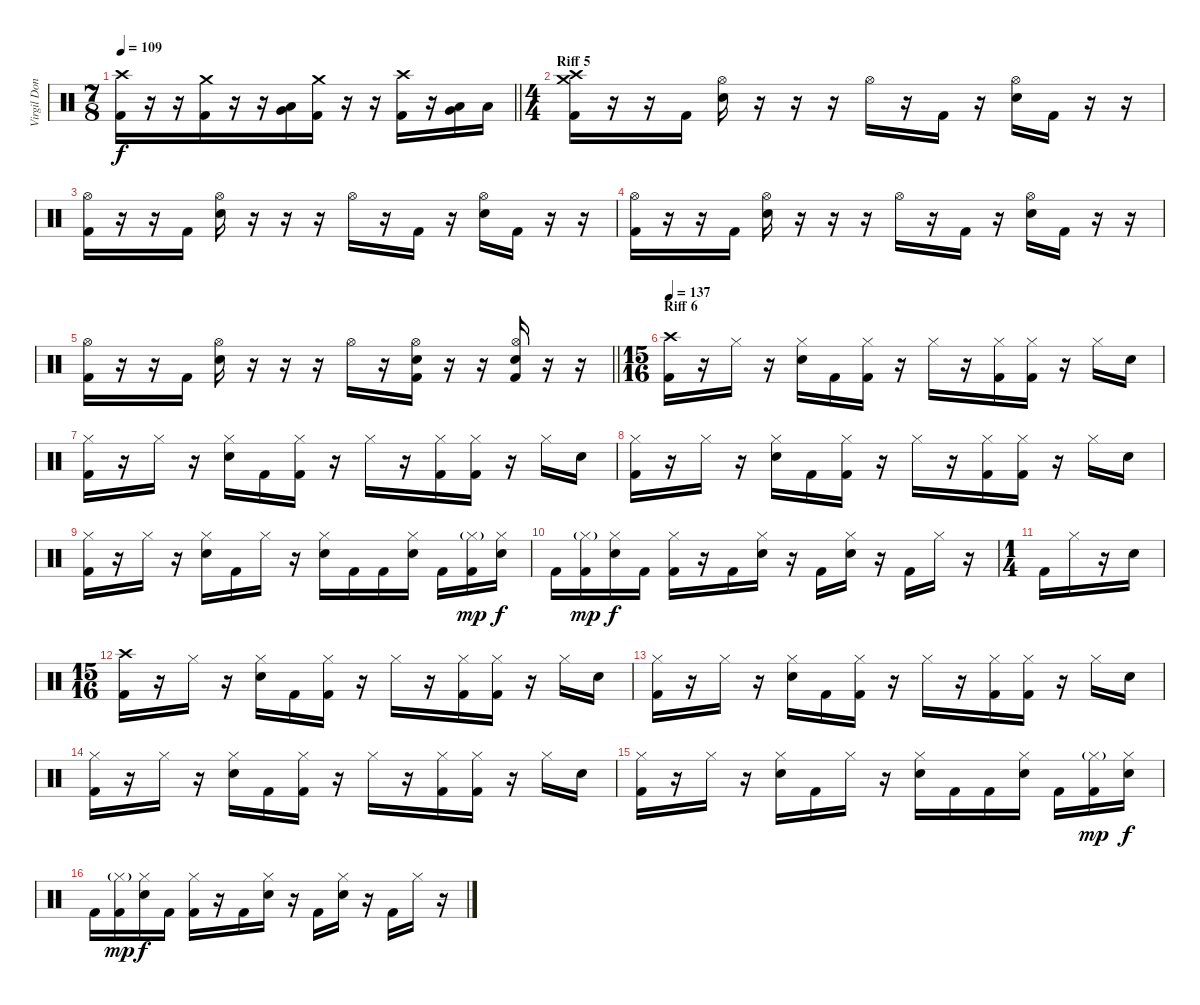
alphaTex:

\track ("Virgil Donati" "Virgil Don") {instrument percussion}
\staff {score}
\articulation defaults
\ts (7 8)
\tempo 109
\clef neutral
\barLineRight lightlight
\ks c
("Crash high (hit)" "Kick (hit) 2").16{dy f} r.16 r.16 ("Crash medium (hit)" "Kick (hit) 2").16 r.16 r.16 ("Very Low Tom (hit)" "Low Floor Tom (hit)").16 ("Crash medium (hit)" "Kick (hit) 2").16 r.16 r.16 ("Crash high (hit)" "Kick (hit) 2").16 r.16 ("Very Low Tom (hit)" "Low Floor Tom (hit)").16 "Low Floor Tom (hit)".16 |
\ts (4 4)
\section ("" "Riff 5")
("Crash medium (hit)" "Crash high (hit)" "Kick (hit) 2").16 r.16 r.16 "Kick (hit) 2".16 ("Hi-Hat (open)" "Electric Snare (hit)").16 r.16 r.16 r.16 "Hi-Hat (open)".16 r.16 "Kick (hit) 2".16 r.16 ("Hi-Hat (open)" "Electric Snare (hit)").16 "Kick (hit) 2".16 r.16 r.16 |
("Hi-Hat (open)" "Kick (hit) 2").16 r.16 r.16 "Kick (hit) 2".16 ("Hi-Hat (open)" "Electric Snare (hit)").16 r.16 r.16 r.16 "Hi-Hat (open)".16 r.16 "Kick (hit) 2".16 r.16 ("Hi-Hat (open)" "Electric Snare (hit)").16 "Kick (hit) 2".16 r.16 r.16 |
("Hi-Hat (open)" "Kick (hit) 2").16 r.16 r.16 "Kick (hit) 2".16 ("Hi-Hat (open)" "Electric Snare (hit)").16 r.16 r.16 r.16 "Hi-Hat (open)".16 r.16 "Kick (hit) 2".16 r.16 ("Hi-Hat (open)" "Electric Snare (hit)").16 "Kick (hit) 2".16 r.16 r.16 |
\barLineRight lightlight
("Hi-Hat (open)" "Kick (hit) 2").16 r.16 r.16 "Kick (hit) 2".16 ("Hi-Hat (open)" "Electric Snare (hit)").16 r.16 r.16 r.16 "Hi-Hat (open)".16 r.16 ("Hi-Hat (open)" "Electric Snare (hit)" "Kick (hit) 2").16 r.16 r.16 ("Hi-Hat (open)" "Electric Snare (hit)" "Kick (hit) 2").16 r.16 r.16 |
\ts (15 16)
\section ("" "Riff 6")
\tempo 137
("Crash high (hit)" "Kick (hit) 2").16 r.16 "Hi-Hat (closed)".16 r.16 ("Hi-Hat (closed)" "Electric Snare (hit)").16 "Kick (hit) 2".16 ("Hi-Hat (closed)" "Kick (hit) 2").16 r.16 "Hi-Hat (closed)".16 r.16 ("Hi-Hat (closed)" "Kick (hit) 2").16 ("Hi-Hat (closed)" "Kick (hit) 2").16 r.16 "Hi-Hat (closed)".16 "Electric Snare (hit)".16 |
("Hi-Hat (closed)" "Kick (hit) 2").16 r.16 "Hi-Hat (closed)".16 r.16 ("Hi-Hat (closed)" "Electric Snare (hit)").16 "Kick (hit) 2".16 ("Hi-Hat (closed)" "Kick (hit) 2").16 r.16 "Hi-Hat (closed)".16 r.16 ("Hi-Hat (closed)" "Kick (hit) 2").16 ("Hi-Hat (closed)" "Kick (hit) 2").16 r.16 "Hi-Hat (closed)".16 "Electric Snare (hit)".16 |
("Hi-Hat (closed)" "Kick (hit) 2").16 r.16 "Hi-Hat (closed)".16 r.16 ("Hi-Hat (closed)" "Electric Snare (hit)").16 "Kick (hit) 2".16 ("Hi-Hat (closed)" "Kick (hit) 2").16 r.16 "Hi-Hat (closed)".16 r.16 ("Hi-Hat (closed)" "Kick (hit) 2").16 ("Hi-Hat (closed)" "Kick (hit) 2").16 r.16 "Hi-Hat (closed)".16 "Electric Snare (hit)".16 |
("Hi-Hat (closed)" "Kick (hit) 2").16 r.16 "Hi-Hat (closed)".16 r.16 ("Hi-Hat (closed)" "Electric Snare (hit)").16 "Kick (hit) 2".16 "Hi-Hat (closed)".16 r.16 ("Hi-Hat (closed)" "Electric Snare (hit)").16 "Kick (hit) 2".16 "Kick (hit) 2".16 ("Hi-Hat (closed)" "Electric Snare (hit)").16 "Kick (hit) 2".16 ("Hi-Hat (closed)"{g} "Kick (hit) 2").16{dy mp} ("Hi-Hat (closed)" "Electric Snare (hit)").16{dy f} |
"Kick (hit) 2".16 ("Hi-Hat (closed)"{g} "Kick (hit) 2").16{dy mp} ("Hi-Hat (closed)" "Electric Snare (hit)").16{dy f} "Kick (hit) 2".16 ("Hi-Hat (closed)" "Kick (hit) 2").16 r.16 "Kick (hit) 2".16 ("Hi-Hat (closed)" "Electric Snare (hit)").16 r.16 "Kick (hit) 2".16 ("Hi-Hat (closed)" "Electric Snare (hit)").16 r.16 "Kick (hit) 2".16 "Hi-Hat (closed)".16 r.16 |
\ts (1 4)
"Kick (hit) 2".16 "Hi-Hat (closed)".16 r.16 "Electric Snare (hit)".16 |
\ts (15 16)
("Crash high (hit)" "Kick (hit) 2").16 r.16 "Hi-Hat (closed)".16 r.16 ("Hi-Hat (closed)" "Electric Snare (hit)").16 "Kick (hit) 2".16 ("Hi-Hat (closed)" "Kick (hit) 2").16 r.16 "Hi-Hat (closed)".16 r.16 ("Hi-Hat (closed)" "Kick (hit) 2").16 ("Hi-Hat (closed)" "Kick (hit) 2").16 r.16 "Hi-Hat (closed)".16 "Electric Snare (hit)".16 |
("Hi-Hat (closed)" "Kick (hit) 2").16 r.16 "Hi-Hat (closed)".16 r.16 ("Hi-Hat (closed)" "Electric Snare (hit)").16 "Kick (hit) 2".16 ("Hi-Hat (closed)" "Kick (hit) 2").16 r.16 "Hi-Hat (closed)".16 r.16 ("Hi-Hat (closed)" "Kick (hit) 2").16 ("Hi-Hat (closed)" "Kick (hit) 2").16 r.16 "Hi-Hat (closed)".16 "Electric Snare (hit)".16 |
("Hi-Hat (closed)" "Kick (hit) 2").16 r.16 "Hi-Hat (closed)".16 r.16 ("Hi-Hat (closed)" "Electric Snare (hit)").16 "Kick (hit) 2".16 ("Hi-Hat (closed)" "Kick (hit) 2").16 r.16 "Hi-Hat (closed)".16 r.16 ("Hi-Hat (closed)" "Kick (hit) 2").16 ("Hi-Hat (closed)" "Kick (hit) 2").16 r.16 "Hi-Hat (closed)".16 "Electric Snare (hit)".16 |
("Hi-Hat (closed)" "Kick (hit) 2").16 r.16 "Hi-Hat (closed)".16 r.16 ("Hi-Hat (closed)" "Electric Snare (hit)").16 "Kick (hit) 2".16 "Hi-Hat (closed)".16 r.16 ("Hi-Hat (closed)" "Electric Snare (hit)").16 "Kick (hit) 2".16 "Kick (hit) 2".16 ("Hi-Hat (closed)" "Electric Snare (hit)").16 "Kick (hit) 2".16 ("Hi-Hat (closed)"{g} "Kick (hit) 2").16{dy mp} ("Hi-Hat (closed)" "Electric Snare (hit)").16{dy f} |
"Kick (hit) 2".16 ("Hi-Hat (closed)"{g} "Kick (hit) 2").16{dy mp} ("Hi-Hat (closed)" "Electric Snare (hit)").16{dy f} "Kick (hit) 2".16 ("Hi-Hat (closed)" "Kick (hit) 2").16 r.16 "Kick (hit) 2".16 ("Hi-Hat (closed)" "Electric Snare (hit)").16 r.16 "Kick (hit) 2".16 ("Hi-Hat (closed)" "Electric Snare (hit)").16 r.16 "Kick (hit) 2".16 "Hi-Hat (closed)".16 r.16
